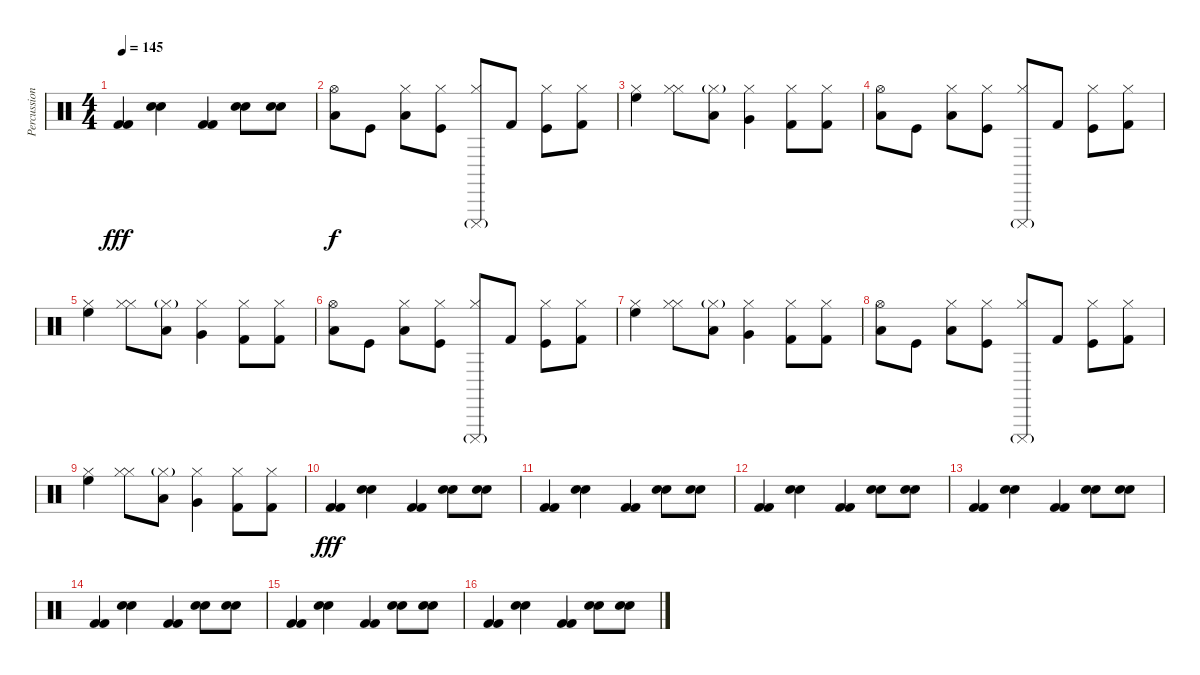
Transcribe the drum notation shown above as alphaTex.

\track ("Percussion ( Keyboard )" "Percussion") {instrument percussion bank 4}
\staff {score}
\articulation defaults
\ts (4 4)
\tempo 145
\clef neutral
\ks c
("Kick (hit) 2" "Kick (hit) 2").4{dy fff} ("Electric Snare (hit)" "Hand Clap (hit)").4 ("Kick (hit) 2" "Kick (hit) 2").4 ("Electric Snare (hit)" "Hand Clap (hit)").8 ("Electric Snare (hit)" "Hand Clap (hit)").8 |
("Low Tom (hit)" "Hi-Hat (open)").8{dy f} "Kick (hit)".8 ("Low Floor Tom (hit)" "Hi-Hat (closed)").8 ("Kick (hit)" "Hi-Hat (closed)").8 ("Cuica (mute)"{g} "Hi-Hat (closed)").8 "Kick (hit) 2".8 ("Kick (hit)" "Hi-Hat (closed)").8 ("Kick (hit) 2" "Hi-Hat (closed)").8 |
("High Floor Tom (hit)" "Hi-Hat (closed)").4 ("Hi-Hat (closed)" "Hi-Hat (closed)").8 ("Low Floor Tom (hit)" "Hi-Hat (closed)"{g}).8 ("Very Low Tom (hit)" "Hi-Hat (closed)").4 ("Kick (hit) 2" "Hi-Hat (closed)").8 ("Kick (hit) 2" "Hi-Hat (closed)").8 |
("Low Tom (hit)" "Hi-Hat (open)").8 "Kick (hit)".8 ("Low Floor Tom (hit)" "Hi-Hat (closed)").8 ("Kick (hit)" "Hi-Hat (closed)").8 ("Cuica (mute)"{g} "Hi-Hat (closed)").8 "Kick (hit) 2".8 ("Kick (hit)" "Hi-Hat (closed)").8 ("Kick (hit) 2" "Hi-Hat (closed)").8 |
("High Floor Tom (hit)" "Hi-Hat (closed)").4 ("Hi-Hat (closed)" "Hi-Hat (closed)").8 ("Low Floor Tom (hit)" "Hi-Hat (closed)"{g}).8 ("Very Low Tom (hit)" "Hi-Hat (closed)").4 ("Kick (hit) 2" "Hi-Hat (closed)").8 ("Kick (hit) 2" "Hi-Hat (closed)").8 |
("Low Tom (hit)" "Hi-Hat (open)").8 "Kick (hit)".8 ("Low Floor Tom (hit)" "Hi-Hat (closed)").8 ("Kick (hit)" "Hi-Hat (closed)").8 ("Cuica (mute)"{g} "Hi-Hat (closed)").8 "Kick (hit) 2".8 ("Kick (hit)" "Hi-Hat (closed)").8 ("Kick (hit) 2" "Hi-Hat (closed)").8 |
("High Floor Tom (hit)" "Hi-Hat (closed)").4 ("Hi-Hat (closed)" "Hi-Hat (closed)").8 ("Low Floor Tom (hit)" "Hi-Hat (closed)"{g}).8 ("Very Low Tom (hit)" "Hi-Hat (closed)").4 ("Kick (hit) 2" "Hi-Hat (closed)").8 ("Kick (hit) 2" "Hi-Hat (closed)").8 |
("Low Tom (hit)" "Hi-Hat (open)").8 "Kick (hit)".8 ("Low Floor Tom (hit)" "Hi-Hat (closed)").8 ("Kick (hit)" "Hi-Hat (closed)").8 ("Cuica (mute)"{g} "Hi-Hat (closed)").8 "Kick (hit) 2".8 ("Kick (hit)" "Hi-Hat (closed)").8 ("Kick (hit) 2" "Hi-Hat (closed)").8 |
("High Floor Tom (hit)" "Hi-Hat (closed)").4 ("Hi-Hat (closed)" "Hi-Hat (closed)").8 ("Low Floor Tom (hit)" "Hi-Hat (closed)"{g}).8 ("Very Low Tom (hit)" "Hi-Hat (closed)").4 ("Kick (hit) 2" "Hi-Hat (closed)").8 ("Kick (hit) 2" "Hi-Hat (closed)").8 |
("Kick (hit) 2" "Kick (hit) 2").4{dy fff} ("Electric Snare (hit)" "Hand Clap (hit)").4 ("Kick (hit) 2" "Kick (hit) 2").4 ("Electric Snare (hit)" "Hand Clap (hit)").8 ("Electric Snare (hit)" "Hand Clap (hit)").8 |
("Kick (hit) 2" "Kick (hit) 2").4 ("Electric Snare (hit)" "Hand Clap (hit)").4 ("Kick (hit) 2" "Kick (hit) 2").4 ("Electric Snare (hit)" "Hand Clap (hit)").8 ("Electric Snare (hit)" "Hand Clap (hit)").8 |
("Kick (hit) 2" "Kick (hit) 2").4 ("Electric Snare (hit)" "Hand Clap (hit)").4 ("Kick (hit) 2" "Kick (hit) 2").4 ("Electric Snare (hit)" "Hand Clap (hit)").8 ("Electric Snare (hit)" "Hand Clap (hit)").8 |
("Kick (hit) 2" "Kick (hit) 2").4 ("Electric Snare (hit)" "Hand Clap (hit)").4 ("Kick (hit) 2" "Kick (hit) 2").4 ("Electric Snare (hit)" "Hand Clap (hit)").8 ("Electric Snare (hit)" "Hand Clap (hit)").8 |
("Kick (hit) 2" "Kick (hit) 2").4 ("Electric Snare (hit)" "Hand Clap (hit)").4 ("Kick (hit) 2" "Kick (hit) 2").4 ("Electric Snare (hit)" "Hand Clap (hit)").8 ("Electric Snare (hit)" "Hand Clap (hit)").8 |
("Kick (hit) 2" "Kick (hit) 2").4 ("Electric Snare (hit)" "Hand Clap (hit)").4 ("Kick (hit) 2" "Kick (hit) 2").4 ("Electric Snare (hit)" "Hand Clap (hit)").8 ("Electric Snare (hit)" "Hand Clap (hit)").8 |
("Kick (hit) 2" "Kick (hit) 2").4 ("Electric Snare (hit)" "Hand Clap (hit)").4 ("Kick (hit) 2" "Kick (hit) 2").4 ("Electric Snare (hit)" "Hand Clap (hit)").8 ("Electric Snare (hit)" "Hand Clap (hit)").8
